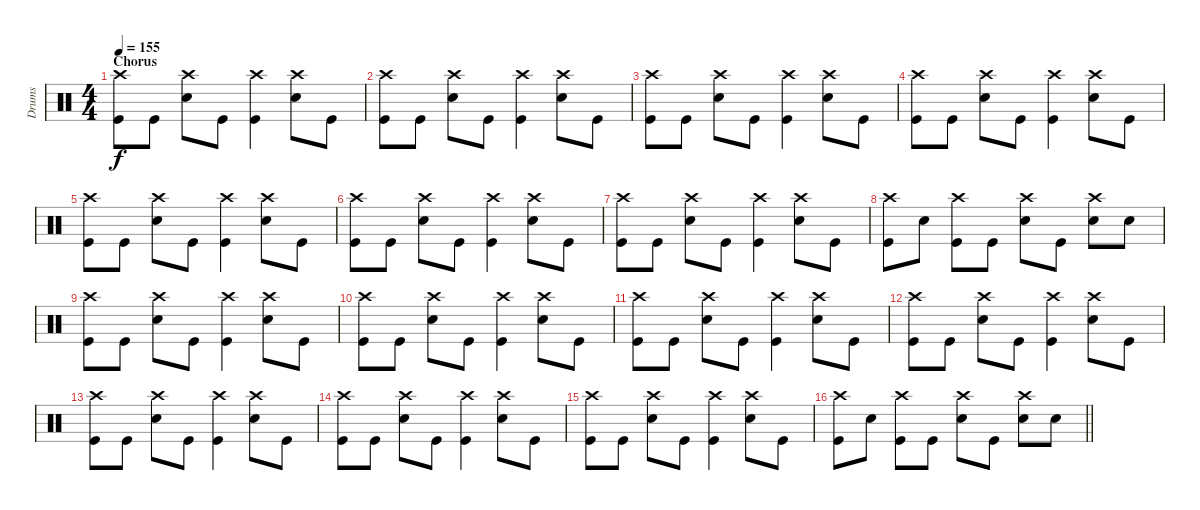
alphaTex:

\track ("Drums" "Drums") {instrument percussion}
\staff {score}
\articulation defaults
\ts (4 4)
\section ("" "Chorus")
\tempo 155
\clef neutral
\ks c
("Crash high (hit)" "Kick (hit)").8{dy f} "Kick (hit)".8 ("Crash high (hit)" "Snare (hit) 2").8 "Kick (hit)".8 ("Crash high (hit)" "Kick (hit)").4 ("Crash high (hit)" "Snare (hit) 2").8 "Kick (hit)".8 |
("Crash high (hit)" "Kick (hit)").8 "Kick (hit)".8 ("Crash high (hit)" "Snare (hit) 2").8 "Kick (hit)".8 ("Crash high (hit)" "Kick (hit)").4 ("Crash high (hit)" "Snare (hit) 2").8 "Kick (hit)".8 |
("Crash high (hit)" "Kick (hit)").8 "Kick (hit)".8 ("Crash high (hit)" "Snare (hit) 2").8 "Kick (hit)".8 ("Crash high (hit)" "Kick (hit)").4 ("Crash high (hit)" "Snare (hit) 2").8 "Kick (hit)".8 |
("Crash high (hit)" "Kick (hit)").8 "Kick (hit)".8 ("Crash high (hit)" "Snare (hit) 2").8 "Kick (hit)".8 ("Crash high (hit)" "Kick (hit)").4 ("Crash high (hit)" "Snare (hit) 2").8 "Kick (hit)".8 |
("Crash high (hit)" "Kick (hit)").8 "Kick (hit)".8 ("Crash high (hit)" "Snare (hit) 2").8 "Kick (hit)".8 ("Crash high (hit)" "Kick (hit)").4 ("Crash high (hit)" "Snare (hit) 2").8 "Kick (hit)".8 |
("Crash high (hit)" "Kick (hit)").8 "Kick (hit)".8 ("Crash high (hit)" "Snare (hit) 2").8 "Kick (hit)".8 ("Crash high (hit)" "Kick (hit)").4 ("Crash high (hit)" "Snare (hit) 2").8 "Kick (hit)".8 |
("Crash high (hit)" "Kick (hit)").8 "Kick (hit)".8 ("Crash high (hit)" "Snare (hit) 2").8 "Kick (hit)".8 ("Crash high (hit)" "Kick (hit)").4 ("Crash high (hit)" "Snare (hit) 2").8 "Kick (hit)".8 |
("Crash high (hit)" "Kick (hit)").8 "Snare (hit) 2".8 ("Crash high (hit)" "Kick (hit)").8 "Kick (hit)".8 ("Crash high (hit)" "Snare (hit) 2").8 "Kick (hit)".8 ("Crash high (hit)" "Snare (hit) 2").8 "Snare (hit) 2".8 |
("Crash high (hit)" "Kick (hit)").8 "Kick (hit)".8 ("Crash high (hit)" "Snare (hit) 2").8 "Kick (hit)".8 ("Crash high (hit)" "Kick (hit)").4 ("Crash high (hit)" "Snare (hit) 2").8 "Kick (hit)".8 |
("Crash high (hit)" "Kick (hit)").8 "Kick (hit)".8 ("Crash high (hit)" "Snare (hit) 2").8 "Kick (hit)".8 ("Crash high (hit)" "Kick (hit)").4 ("Crash high (hit)" "Snare (hit) 2").8 "Kick (hit)".8 |
("Crash high (hit)" "Kick (hit)").8 "Kick (hit)".8 ("Crash high (hit)" "Snare (hit) 2").8 "Kick (hit)".8 ("Crash high (hit)" "Kick (hit)").4 ("Crash high (hit)" "Snare (hit) 2").8 "Kick (hit)".8 |
("Crash high (hit)" "Kick (hit)").8 "Kick (hit)".8 ("Crash high (hit)" "Snare (hit) 2").8 "Kick (hit)".8 ("Crash high (hit)" "Kick (hit)").4 ("Crash high (hit)" "Snare (hit) 2").8 "Kick (hit)".8 |
("Crash high (hit)" "Kick (hit)").8 "Kick (hit)".8 ("Crash high (hit)" "Snare (hit) 2").8 "Kick (hit)".8 ("Crash high (hit)" "Kick (hit)").4 ("Crash high (hit)" "Snare (hit) 2").8 "Kick (hit)".8 |
("Crash high (hit)" "Kick (hit)").8 "Kick (hit)".8 ("Crash high (hit)" "Snare (hit) 2").8 "Kick (hit)".8 ("Crash high (hit)" "Kick (hit)").4 ("Crash high (hit)" "Snare (hit) 2").8 "Kick (hit)".8 |
("Crash high (hit)" "Kick (hit)").8 "Kick (hit)".8 ("Crash high (hit)" "Snare (hit) 2").8 "Kick (hit)".8 ("Crash high (hit)" "Kick (hit)").4 ("Crash high (hit)" "Snare (hit) 2").8 "Kick (hit)".8 |
\barLineRight lightlight
("Crash high (hit)" "Kick (hit)").8 "Snare (hit) 2".8 ("Crash high (hit)" "Kick (hit)").8 "Kick (hit)".8 ("Crash high (hit)" "Snare (hit) 2").8 "Kick (hit)".8 ("Crash high (hit)" "Snare (hit) 2").8 "Snare (hit) 2".8
